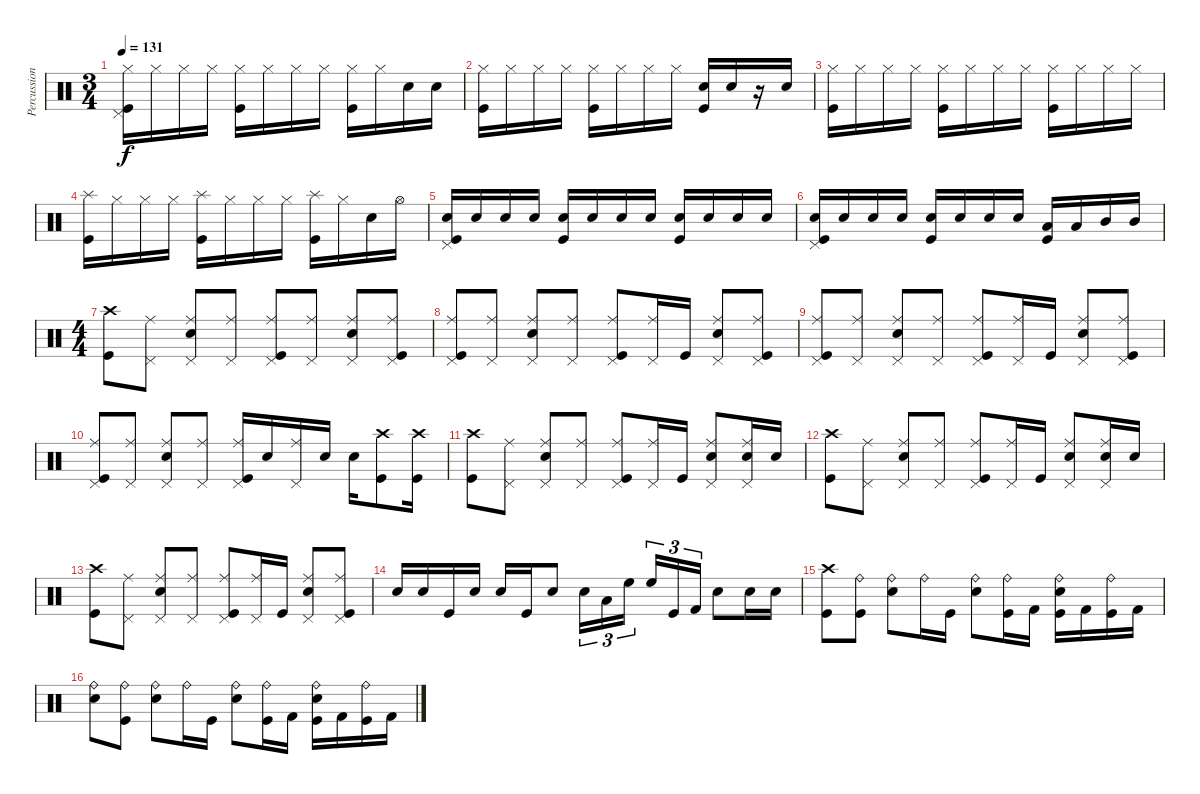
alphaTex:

\track ("Percussion" "Percussion") {instrument percussion}
\staff {score}
\articulation defaults
\ts (3 4)
\tempo 131
\clef neutral
\ks c
("Hi-Hat (closed)" "Kick (hit)" "Pedal Hi-Hat (hit)").16{dy f} "Hi-Hat (closed)".16 "Hi-Hat (closed)".16 "Hi-Hat (closed)".16 ("Hi-Hat (closed)" "Kick (hit)").16 "Hi-Hat (closed)".16 "Hi-Hat (closed)".16 "Hi-Hat (closed)".16 ("Hi-Hat (closed)" "Kick (hit)").16 "Hi-Hat (closed)".16 "Snare (hit) 2".16 "Snare (hit) 2".16 |
("Hi-Hat (closed)" "Kick (hit)").16 "Hi-Hat (closed)".16 "Hi-Hat (closed)".16 "Hi-Hat (closed)".16 ("Hi-Hat (closed)" "Kick (hit)").16 "Hi-Hat (closed)".16 "Hi-Hat (closed)".16 "Hi-Hat (closed)".16 ("Snare (hit) 2" "Kick (hit)").16 "Snare (hit) 2".16 r.16 "Snare (hit) 2".16 |
("Hi-Hat (closed)" "Kick (hit)").16 "Hi-Hat (closed)".16 "Hi-Hat (closed)".16 "Hi-Hat (closed)".16 ("Hi-Hat (closed)" "Kick (hit)").16 "Hi-Hat (closed)".16 "Hi-Hat (closed)".16 "Hi-Hat (closed)".16 ("Hi-Hat (closed)" "Kick (hit)").16 "Hi-Hat (closed)".16 "Hi-Hat (closed)".16 "Hi-Hat (closed)".16 |
("Splash (hit)" "Kick (hit)").16 "Hi-Hat (closed)".16 "Hi-Hat (closed)".16 "Hi-Hat (closed)".16 ("Splash (hit)" "Kick (hit)").16 "Hi-Hat (closed)".16 "Hi-Hat (closed)".16 "Hi-Hat (closed)".16 ("Splash (hit)" "Kick (hit)").16 "Hi-Hat (closed)".16 "Snare (hit) 2".16 "Hi-Hat (open)".16 |
("Snare (hit) 2" "Kick (hit)" "Pedal Hi-Hat (hit)").16 "Snare (hit) 2".16 "Snare (hit) 2".16 "Snare (hit) 2".16 ("Snare (hit) 2" "Kick (hit)").16 "Snare (hit) 2".16 "Snare (hit) 2".16 "Snare (hit) 2".16 ("Snare (hit) 2" "Kick (hit)").16 "Snare (hit) 2".16 "Snare (hit) 2".16 "Snare (hit) 2".16 |
("Snare (hit) 2" "Kick (hit)" "Pedal Hi-Hat (hit)").16 "Snare (hit) 2".16 "Snare (hit) 2".16 "Snare (hit) 2".16 ("Snare (hit) 2" "Kick (hit)").16 "Snare (hit) 2".16 "Snare (hit) 2".16 "Snare (hit) 2".16 ("Low Tom (hit)" "Kick (hit)").16 "Low Tom (hit)".16 "Mid Tom (hit)".16 "Mid Tom (hit)".16 |
\ts (4 4)
("Crash high (hit)" "Kick (hit)").8 ("Pedal Hi-Hat (hit)" "Ride (middle)").8 ("Pedal Hi-Hat (hit)" "Ride (middle)" "Snare (hit) 2").8 ("Pedal Hi-Hat (hit)" "Ride (middle)").8 ("Pedal Hi-Hat (hit)" "Ride (middle)" "Kick (hit)").8 ("Pedal Hi-Hat (hit)" "Ride (middle)").8 ("Pedal Hi-Hat (hit)" "Ride (middle)" "Snare (hit) 2").8 ("Pedal Hi-Hat (hit)" "Ride (middle)" "Kick (hit)").8 |
("Pedal Hi-Hat (hit)" "Ride (middle)" "Kick (hit)").8 ("Pedal Hi-Hat (hit)" "Ride (middle)").8 ("Pedal Hi-Hat (hit)" "Ride (middle)" "Snare (hit) 2").8 ("Pedal Hi-Hat (hit)" "Ride (middle)").8 ("Pedal Hi-Hat (hit)" "Ride (middle)" "Kick (hit)").8 ("Pedal Hi-Hat (hit)" "Ride (middle)").16 "Kick (hit)".16 ("Pedal Hi-Hat (hit)" "Ride (middle)" "Snare (hit) 2").8 ("Pedal Hi-Hat (hit)" "Ride (middle)" "Kick (hit)").8 |
("Pedal Hi-Hat (hit)" "Ride (middle)" "Kick (hit)").8 ("Pedal Hi-Hat (hit)" "Ride (middle)").8 ("Pedal Hi-Hat (hit)" "Ride (middle)" "Snare (hit) 2").8 ("Pedal Hi-Hat (hit)" "Ride (middle)").8 ("Pedal Hi-Hat (hit)" "Ride (middle)" "Kick (hit)").8 ("Pedal Hi-Hat (hit)" "Ride (middle)").16 "Kick (hit)".16 ("Pedal Hi-Hat (hit)" "Ride (middle)" "Snare (hit) 2").8 ("Pedal Hi-Hat (hit)" "Ride (middle)" "Kick (hit)").8 |
("Pedal Hi-Hat (hit)" "Ride (middle)" "Kick (hit)").8 ("Pedal Hi-Hat (hit)" "Ride (middle)").8 ("Pedal Hi-Hat (hit)" "Ride (middle)" "Snare (hit) 2").8 ("Pedal Hi-Hat (hit)" "Ride (middle)").8 ("Pedal Hi-Hat (hit)" "Ride (middle)" "Kick (hit)").16 "Snare (hit) 2".16 ("Pedal Hi-Hat (hit)" "Ride (middle)").16 "Snare (hit) 2".16 "Snare (hit) 2".16 ("Crash high (hit)" "Kick (hit)").8 ("Crash high (hit)" "Kick (hit)").16 |
("Crash high (hit)" "Kick (hit)").8 ("Pedal Hi-Hat (hit)" "Ride (middle)").8 ("Pedal Hi-Hat (hit)" "Ride (middle)" "Snare (hit) 2").8 ("Pedal Hi-Hat (hit)" "Ride (middle)").8 ("Pedal Hi-Hat (hit)" "Ride (middle)" "Kick (hit)").8 ("Pedal Hi-Hat (hit)" "Ride (middle)").16 "Kick (hit)".16 ("Pedal Hi-Hat (hit)" "Ride (middle)" "Snare (hit) 2").8 ("Pedal Hi-Hat (hit)" "Ride (middle)" "Snare (hit) 2").16 "Snare (hit) 2".16 |
("Crash high (hit)" "Kick (hit)").8 ("Pedal Hi-Hat (hit)" "Ride (middle)").8 ("Pedal Hi-Hat (hit)" "Ride (middle)" "Snare (hit) 2").8 ("Pedal Hi-Hat (hit)" "Ride (middle)").8 ("Pedal Hi-Hat (hit)" "Ride (middle)" "Kick (hit)").8 ("Pedal Hi-Hat (hit)" "Ride (middle)").16 "Kick (hit)".16 ("Pedal Hi-Hat (hit)" "Ride (middle)" "Snare (hit) 2").8 ("Pedal Hi-Hat (hit)" "Ride (middle)" "Snare (hit) 2").16 "Snare (hit) 2".16 |
("Crash high (hit)" "Kick (hit)").8 ("Pedal Hi-Hat (hit)" "Ride (middle)").8 ("Pedal Hi-Hat (hit)" "Ride (middle)" "Snare (hit) 2").8 ("Pedal Hi-Hat (hit)" "Ride (middle)").8 ("Pedal Hi-Hat (hit)" "Ride (middle)" "Kick (hit)").8 ("Pedal Hi-Hat (hit)" "Ride (middle)").16 "Kick (hit)".16 ("Pedal Hi-Hat (hit)" "Ride (middle)" "Snare (hit) 2").8 ("Pedal Hi-Hat (hit)" "Ride (middle)" "Kick (hit)").8 |
"Electric Snare (hit)".16 "Snare (hit) 2".16 "Kick (hit)".16 "Electric Snare (hit)".16 "Snare (hit) 2".16 "Kick (hit)".16 "Electric Snare (hit)".8 "Snare (hit) 2".16{tu (3 2)} "Low Tom (hit)".16{tu (3 2)} "High Floor Tom (hit)".16{tu (3 2)} "High Floor Tom (hit)".16{tu (3 2)} "Kick (hit)".16{tu (3 2)} "Kick (hit) 2".16{tu (3 2)} "Electric Snare (hit)".8 "Snare (hit) 2".16 "Snare (hit) 2".16 |
("Crash high (hit)" "Kick (hit)").8 ("Ride (bell)" "Kick (hit)").8 ("Ride (bell)" "Snare (hit) 2").8 "Ride (bell)".16 "Kick (hit)".16 ("Ride (bell)" "Snare (hit) 2").8 ("Ride (bell)" "Kick (hit)").16 "Kick (hit) 2".16 ("Ride (bell)" "Snare (hit) 2" "Kick (hit)").16 "Kick (hit) 2".16 ("Ride (bell)" "Kick (hit)").16 "Kick (hit) 2".16 |
("Snare (hit) 2" "Ride (bell)").8 ("Ride (bell)" "Kick (hit)").8 ("Ride (bell)" "Snare (hit) 2").8 "Ride (bell)".16 "Kick (hit)".16 ("Ride (bell)" "Snare (hit) 2").8 ("Ride (bell)" "Kick (hit)").16 "Kick (hit) 2".16 ("Ride (bell)" "Snare (hit) 2" "Kick (hit)").16 "Kick (hit) 2".16 ("Ride (bell)" "Kick (hit)").16 "Kick (hit) 2".16
